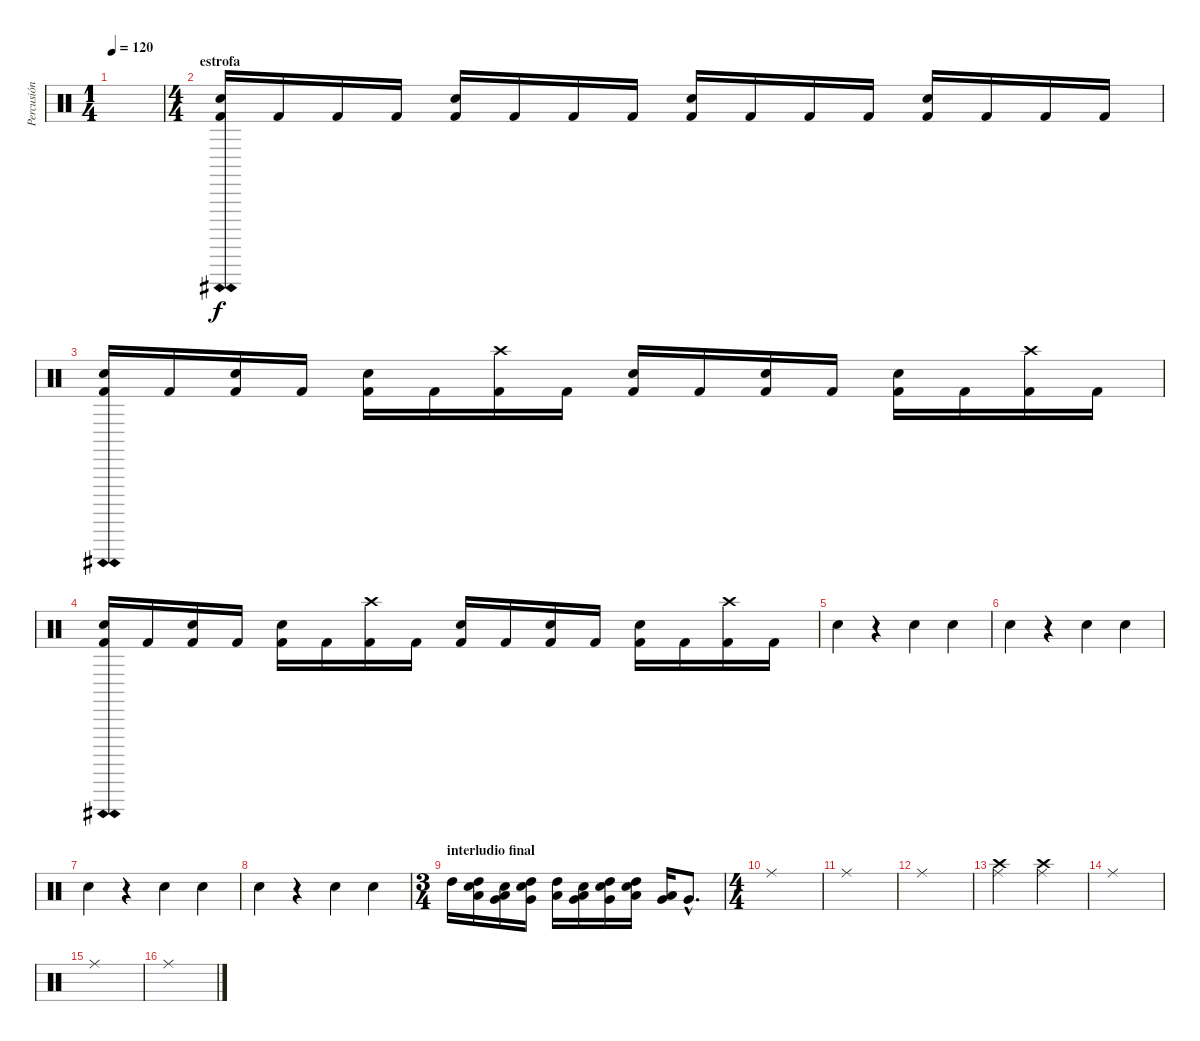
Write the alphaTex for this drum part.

\track ("Percusión" "Percusión") {instrument percussion}
\staff {score}
\articulation defaults
\ts (1 4)
\tempo 120
\clef neutral
\ks c
|
\ts (4 4)
\section ("" "estrofa")
("Kick (hit) 2"{ah 12} "Electric Snare (hit)"{ah 12}).16 "Kick (hit) 2".16 "Kick (hit) 2".16 "Kick (hit) 2".16 ("Kick (hit) 2" "Electric Snare (hit)").16 "Kick (hit) 2".16 "Kick (hit) 2".16 "Kick (hit) 2".16 ("Kick (hit) 2" "Electric Snare (hit)").16 "Kick (hit) 2".16 "Kick (hit) 2".16 "Kick (hit) 2".16 ("Kick (hit) 2" "Electric Snare (hit)").16 "Kick (hit) 2".16 "Kick (hit) 2".16 "Kick (hit) 2".16 |
("Kick (hit) 2"{ah 12} "Electric Snare (hit)"{ah 12}).16 "Kick (hit) 2".16 ("Kick (hit) 2" "Electric Snare (hit)").16 "Kick (hit) 2".16 ("Kick (hit) 2" "Electric Snare (hit)").16 "Kick (hit) 2".16 ("Crash high (hit)" "Kick (hit) 2").16 "Kick (hit) 2".16 ("Kick (hit) 2" "Electric Snare (hit)").16 "Kick (hit) 2".16 ("Kick (hit) 2" "Electric Snare (hit)").16 "Kick (hit) 2".16 ("Kick (hit) 2" "Electric Snare (hit)").16 "Kick (hit) 2".16 ("Crash high (hit)" "Kick (hit) 2").16 "Kick (hit) 2".16 |
("Kick (hit) 2"{ah 12} "Electric Snare (hit)"{ah 12}).16 "Kick (hit) 2".16 ("Kick (hit) 2" "Electric Snare (hit)").16 "Kick (hit) 2".16 ("Kick (hit) 2" "Electric Snare (hit)").16 "Kick (hit) 2".16 ("Crash high (hit)" "Kick (hit) 2").16 "Kick (hit) 2".16 ("Kick (hit) 2" "Electric Snare (hit)").16 "Kick (hit) 2".16 ("Kick (hit) 2" "Electric Snare (hit)").16 "Kick (hit) 2".16 ("Kick (hit) 2" "Electric Snare (hit)").16 "Kick (hit) 2".16 ("Crash high (hit)" "Kick (hit) 2").16 "Kick (hit) 2".16 |
"Electric Snare (hit)".4 r.4 "Electric Snare (hit)".4 "Electric Snare (hit)".4 |
"Electric Snare (hit)".4 r.4 "Electric Snare (hit)".4 "Electric Snare (hit)".4 |
"Electric Snare (hit)".4 r.4 "Electric Snare (hit)".4 "Electric Snare (hit)".4 |
"Electric Snare (hit)".4 r.4 "Electric Snare (hit)".4 "Electric Snare (hit)".4 |
\ts (3 4)
\section ("" "interludio final")
"High Tom (hit)".16 ("Low Tom (hit)" "High Tom (hit)" "Electric Snare (hit)").16 ("Very Low Tom (hit)" "Low Tom (hit)" "Electric Snare (hit)").16 ("High Tom (hit)" "Very Low Tom (hit)" "Electric Snare (hit)").16 ("Low Tom (hit)" "High Tom (hit)").16 ("Very Low Tom (hit)" "Low Tom (hit)" "Electric Snare (hit)").16 ("High Tom (hit)" "Very Low Tom (hit)" "Electric Snare (hit)").16 ("Low Tom (hit)" "High Tom (hit)" "Electric Snare (hit)").16 ("Very Low Tom (hit)" "Low Tom (hit)").16 "Very Low Tom (hit)"{hac}.8{d} |
\ts (4 4)
"Ride (middle)".1 |
"Ride (middle)".1 |
"Ride (middle)".1 |
("Crash high (hit)" "Ride (middle)").2 ("Crash high (hit)" "Ride (middle)").2 |
"Ride (middle)".1 |
"Ride (middle)".1 |
"Ride (middle)".1
